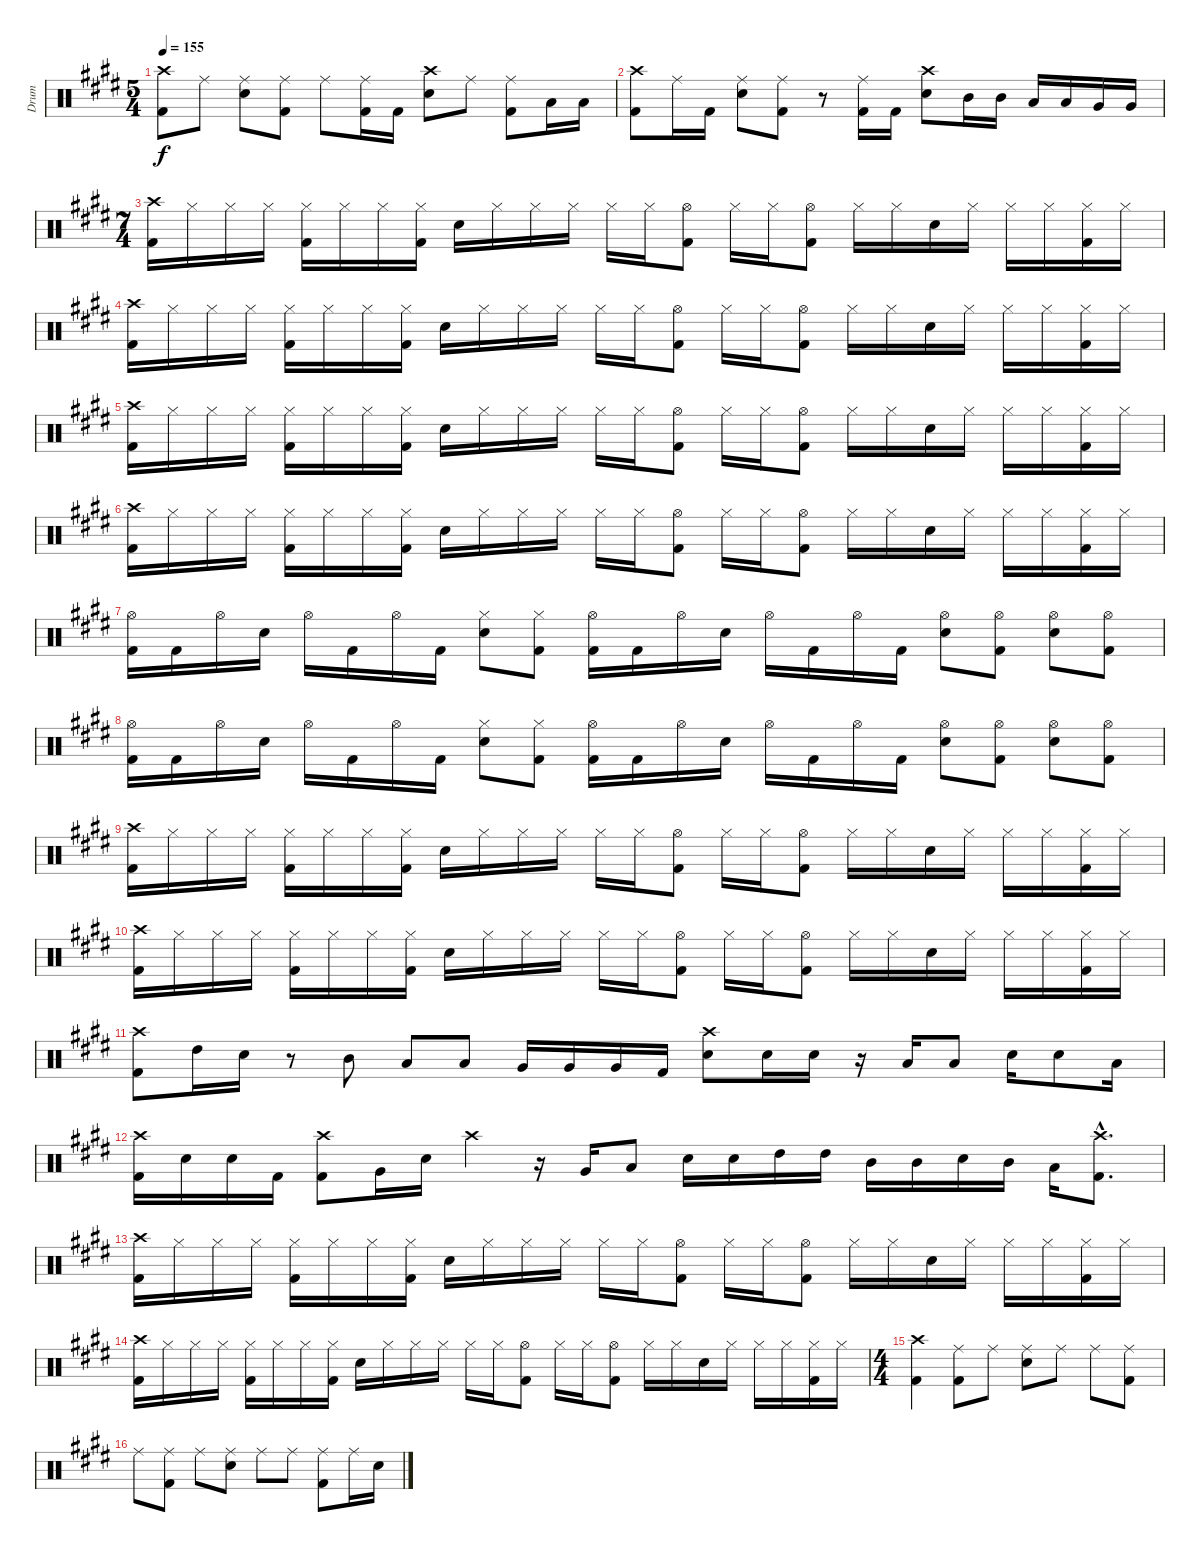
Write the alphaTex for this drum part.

\track ("Drum" "Drum") {instrument percussion}
\staff {score}
\articulation defaults
\ts (5 4)
\tempo 155
\clef neutral
\ks e
("Crash high (hit)" "Kick (hit) 2").8{dy f} "Ride (middle)".8 ("Ride (middle)" "Snare (hit) 2").8 ("Ride (middle)" "Kick (hit) 2").8 "Ride (middle)".8 ("Ride (middle)" "Kick (hit) 2").16 "Kick (hit) 2".16 ("Crash high (hit)" "Snare (hit) 2").8 "Ride (middle)".8 ("Ride (middle)" "Kick (hit) 2").8 "Low Tom (hit)".16 "Low Tom (hit)".16 |
("Crash high (hit)" "Kick (hit) 2").8 "Ride (middle)".16 "Kick (hit) 2".16 ("Ride (middle)" "Snare (hit) 2").8 ("Ride (middle)" "Kick (hit) 2").8 r.8 ("Ride (middle)" "Kick (hit) 2").16 "Kick (hit) 2".16 ("Crash high (hit)" "Snare (hit) 2").8 "Mid Tom (hit)".16 "Mid Tom (hit)".16 "Low Tom (hit)".16 "Low Tom (hit)".16 "Very Low Tom (hit)".16 "Very Low Tom (hit)".16 |
\ts (7 4)
("Crash high (hit)" "Kick (hit) 2").16 "Hi-Hat (closed)".16 "Hi-Hat (closed)".16 "Hi-Hat (closed)".16 ("Hi-Hat (closed)" "Kick (hit) 2").16 "Hi-Hat (closed)".16 "Hi-Hat (closed)".16 ("Hi-Hat (closed)" "Kick (hit) 2").16 "Snare (hit) 2".16 "Hi-Hat (closed)".16 "Hi-Hat (closed)".16 "Hi-Hat (closed)".16 "Hi-Hat (closed)".16 "Hi-Hat (closed)".16 ("Hi-Hat (open)" "Kick (hit) 2").8 "Hi-Hat (closed)".16 "Hi-Hat (closed)".16 ("Hi-Hat (open)" "Kick (hit) 2").8 "Hi-Hat (closed)".16 "Hi-Hat (closed)".16 "Snare (hit) 2".16 "Hi-Hat (closed)".16 "Hi-Hat (closed)".16 "Hi-Hat (closed)".16 ("Hi-Hat (closed)" "Kick (hit) 2").16 "Hi-Hat (closed)".16 |
("Crash high (hit)" "Kick (hit) 2").16 "Hi-Hat (closed)".16 "Hi-Hat (closed)".16 "Hi-Hat (closed)".16 ("Hi-Hat (closed)" "Kick (hit) 2").16 "Hi-Hat (closed)".16 "Hi-Hat (closed)".16 ("Hi-Hat (closed)" "Kick (hit) 2").16 "Snare (hit) 2".16 "Hi-Hat (closed)".16 "Hi-Hat (closed)".16 "Hi-Hat (closed)".16 "Hi-Hat (closed)".16 "Hi-Hat (closed)".16 ("Hi-Hat (open)" "Kick (hit) 2").8 "Hi-Hat (closed)".16 "Hi-Hat (closed)".16 ("Hi-Hat (open)" "Kick (hit) 2").8 "Hi-Hat (closed)".16 "Hi-Hat (closed)".16 "Snare (hit) 2".16 "Hi-Hat (closed)".16 "Hi-Hat (closed)".16 "Hi-Hat (closed)".16 ("Hi-Hat (closed)" "Kick (hit) 2").16 "Hi-Hat (closed)".16 |
("Crash high (hit)" "Kick (hit) 2").16 "Hi-Hat (closed)".16 "Hi-Hat (closed)".16 "Hi-Hat (closed)".16 ("Hi-Hat (closed)" "Kick (hit) 2").16 "Hi-Hat (closed)".16 "Hi-Hat (closed)".16 ("Hi-Hat (closed)" "Kick (hit) 2").16 "Snare (hit) 2".16 "Hi-Hat (closed)".16 "Hi-Hat (closed)".16 "Hi-Hat (closed)".16 "Hi-Hat (closed)".16 "Hi-Hat (closed)".16 ("Hi-Hat (open)" "Kick (hit) 2").8 "Hi-Hat (closed)".16 "Hi-Hat (closed)".16 ("Hi-Hat (open)" "Kick (hit) 2").8 "Hi-Hat (closed)".16 "Hi-Hat (closed)".16 "Snare (hit) 2".16 "Hi-Hat (closed)".16 "Hi-Hat (closed)".16 "Hi-Hat (closed)".16 ("Hi-Hat (closed)" "Kick (hit) 2").16 "Hi-Hat (closed)".16 |
("Crash high (hit)" "Kick (hit) 2").16 "Hi-Hat (closed)".16 "Hi-Hat (closed)".16 "Hi-Hat (closed)".16 ("Hi-Hat (closed)" "Kick (hit) 2").16 "Hi-Hat (closed)".16 "Hi-Hat (closed)".16 ("Hi-Hat (closed)" "Kick (hit) 2").16 "Snare (hit) 2".16 "Hi-Hat (closed)".16 "Hi-Hat (closed)".16 "Hi-Hat (closed)".16 "Hi-Hat (closed)".16 "Hi-Hat (closed)".16 ("Hi-Hat (open)" "Kick (hit) 2").8 "Hi-Hat (closed)".16 "Hi-Hat (closed)".16 ("Hi-Hat (open)" "Kick (hit) 2").8 "Hi-Hat (closed)".16 "Hi-Hat (closed)".16 "Snare (hit) 2".16 "Hi-Hat (closed)".16 "Hi-Hat (closed)".16 "Hi-Hat (closed)".16 ("Hi-Hat (closed)" "Kick (hit) 2").16 "Hi-Hat (closed)".16 |
("Hi-Hat (open)" "Kick (hit) 2").16 "Kick (hit) 2".16 "Hi-Hat (open)".16 "Snare (hit) 2".16 "Hi-Hat (open)".16 "Kick (hit) 2".16 "Hi-Hat (open)".16 "Kick (hit) 2".16 ("Hi-Hat (closed)" "Snare (hit) 2").8 ("Hi-Hat (closed)" "Kick (hit) 2").8 ("Hi-Hat (open)" "Kick (hit) 2").16 "Kick (hit) 2".16 "Hi-Hat (open)".16 "Snare (hit) 2".16 "Hi-Hat (open)".16 "Kick (hit) 2".16 "Hi-Hat (open)".16 "Kick (hit) 2".16 ("Hi-Hat (open)" "Snare (hit) 2").8 ("Hi-Hat (open)" "Kick (hit) 2").8 ("Hi-Hat (open)" "Snare (hit) 2").8 ("Hi-Hat (open)" "Kick (hit) 2").8 |
("Hi-Hat (open)" "Kick (hit) 2").16 "Kick (hit) 2".16 "Hi-Hat (open)".16 "Snare (hit) 2".16 "Hi-Hat (open)".16 "Kick (hit) 2".16 "Hi-Hat (open)".16 "Kick (hit) 2".16 ("Hi-Hat (closed)" "Snare (hit) 2").8 ("Hi-Hat (closed)" "Kick (hit) 2").8 ("Hi-Hat (open)" "Kick (hit) 2").16 "Kick (hit) 2".16 "Hi-Hat (open)".16 "Snare (hit) 2".16 "Hi-Hat (open)".16 "Kick (hit) 2".16 "Hi-Hat (open)".16 "Kick (hit) 2".16 ("Hi-Hat (open)" "Snare (hit) 2").8 ("Hi-Hat (open)" "Kick (hit) 2").8 ("Hi-Hat (open)" "Snare (hit) 2").8 ("Hi-Hat (open)" "Kick (hit) 2").8 |
("Crash high (hit)" "Kick (hit) 2").16 "Hi-Hat (closed)".16 "Hi-Hat (closed)".16 "Hi-Hat (closed)".16 ("Hi-Hat (closed)" "Kick (hit) 2").16 "Hi-Hat (closed)".16 "Hi-Hat (closed)".16 ("Hi-Hat (closed)" "Kick (hit) 2").16 "Snare (hit) 2".16 "Hi-Hat (closed)".16 "Hi-Hat (closed)".16 "Hi-Hat (closed)".16 "Hi-Hat (closed)".16 "Hi-Hat (closed)".16 ("Hi-Hat (open)" "Kick (hit) 2").8 "Hi-Hat (closed)".16 "Hi-Hat (closed)".16 ("Hi-Hat (open)" "Kick (hit) 2").8 "Hi-Hat (closed)".16 "Hi-Hat (closed)".16 "Snare (hit) 2".16 "Hi-Hat (closed)".16 "Hi-Hat (closed)".16 "Hi-Hat (closed)".16 ("Hi-Hat (closed)" "Kick (hit) 2").16 "Hi-Hat (closed)".16 |
("Crash high (hit)" "Kick (hit) 2").16 "Hi-Hat (closed)".16 "Hi-Hat (closed)".16 "Hi-Hat (closed)".16 ("Hi-Hat (closed)" "Kick (hit) 2").16 "Hi-Hat (closed)".16 "Hi-Hat (closed)".16 ("Hi-Hat (closed)" "Kick (hit) 2").16 "Snare (hit) 2".16 "Hi-Hat (closed)".16 "Hi-Hat (closed)".16 "Hi-Hat (closed)".16 "Hi-Hat (closed)".16 "Hi-Hat (closed)".16 ("Hi-Hat (open)" "Kick (hit) 2").8 "Hi-Hat (closed)".16 "Hi-Hat (closed)".16 ("Hi-Hat (open)" "Kick (hit) 2").8 "Hi-Hat (closed)".16 "Hi-Hat (closed)".16 "Snare (hit) 2".16 "Hi-Hat (closed)".16 "Hi-Hat (closed)".16 "Hi-Hat (closed)".16 ("Hi-Hat (closed)" "Kick (hit) 2").16 "Hi-Hat (closed)".16 |
("Crash high (hit)" "Kick (hit) 2").8 "High Tom (hit)".16 "Snare (hit) 2".16 r.8 "Mid Tom (hit)".8 "Low Tom (hit)".8 "Low Tom (hit)".8 "Very Low Tom (hit)".16 "Very Low Tom (hit)".16 "Very Low Tom (hit)".16 "Kick (hit) 2".16 ("Crash high (hit)" "Snare (hit) 2").8 "Snare (hit) 2".16 "Snare (hit) 2".16 r.16 "Low Tom (hit)".16 "Low Tom (hit)".8 "Snare (hit) 2".16 "Snare (hit) 2".8 "Low Tom (hit)".16 |
("Crash high (hit)" "Kick (hit) 2").16 "Snare (hit) 2".16 "Snare (hit) 2".16 "Kick (hit) 2".16 ("Crash high (hit)" "Kick (hit) 2").8 "Very Low Tom (hit)".16 "Snare (hit) 2".16 "Crash high (hit)".4 r.16 "Very Low Tom (hit)".16 "Low Tom (hit)".8 "Snare (hit) 2".16 "Snare (hit) 2".16 "High Tom (hit)".16 "High Tom (hit)".16 "Mid Tom (hit)".16 "Mid Tom (hit)".16 "Snare (hit) 2".16 "Mid Tom (hit)".16 "Low Tom (hit)".16 ("Crash high (hit)"{hac} "Kick (hit) 2"{hac}).8{d} |
("Crash high (hit)" "Kick (hit) 2").16 "Hi-Hat (closed)".16 "Hi-Hat (closed)".16 "Hi-Hat (closed)".16 ("Hi-Hat (closed)" "Kick (hit) 2").16 "Hi-Hat (closed)".16 "Hi-Hat (closed)".16 ("Hi-Hat (closed)" "Kick (hit) 2").16 "Snare (hit) 2".16 "Hi-Hat (closed)".16 "Hi-Hat (closed)".16 "Hi-Hat (closed)".16 "Hi-Hat (closed)".16 "Hi-Hat (closed)".16 ("Hi-Hat (open)" "Kick (hit) 2").8 "Hi-Hat (closed)".16 "Hi-Hat (closed)".16 ("Hi-Hat (open)" "Kick (hit) 2").8 "Hi-Hat (closed)".16 "Hi-Hat (closed)".16 "Snare (hit) 2".16 "Hi-Hat (closed)".16 "Hi-Hat (closed)".16 "Hi-Hat (closed)".16 ("Hi-Hat (closed)" "Kick (hit) 2").16 "Hi-Hat (closed)".16 |
("Crash high (hit)" "Kick (hit) 2").16 "Hi-Hat (closed)".16 "Hi-Hat (closed)".16 "Hi-Hat (closed)".16 ("Hi-Hat (closed)" "Kick (hit) 2").16 "Hi-Hat (closed)".16 "Hi-Hat (closed)".16 ("Hi-Hat (closed)" "Kick (hit) 2").16 "Snare (hit) 2".16 "Hi-Hat (closed)".16 "Hi-Hat (closed)".16 "Hi-Hat (closed)".16 "Hi-Hat (closed)".16 "Hi-Hat (closed)".16 ("Hi-Hat (open)" "Kick (hit) 2").8 "Hi-Hat (closed)".16 "Hi-Hat (closed)".16 ("Hi-Hat (open)" "Kick (hit) 2").8 "Hi-Hat (closed)".16 "Hi-Hat (closed)".16 "Snare (hit) 2".16 "Hi-Hat (closed)".16 "Hi-Hat (closed)".16 "Hi-Hat (closed)".16 ("Hi-Hat (closed)" "Kick (hit) 2").16 "Hi-Hat (closed)".16 |
\ts (4 4)
("Crash high (hit)" "Kick (hit) 2").4 ("Ride (middle)" "Kick (hit) 2").8 "Ride (middle)".8 ("Ride (middle)" "Snare (hit) 2").8 "Ride (middle)".8 "Ride (middle)".8 ("Ride (middle)" "Kick (hit) 2").8 |
"Ride (middle)".8 ("Ride (middle)" "Kick (hit) 2").8 "Ride (middle)".8 ("Ride (middle)" "Snare (hit) 2").8 "Ride (middle)".8 "Ride (middle)".8 ("Ride (middle)" "Kick (hit) 2").8 "Ride (middle)".16 "Snare (hit) 2".16
